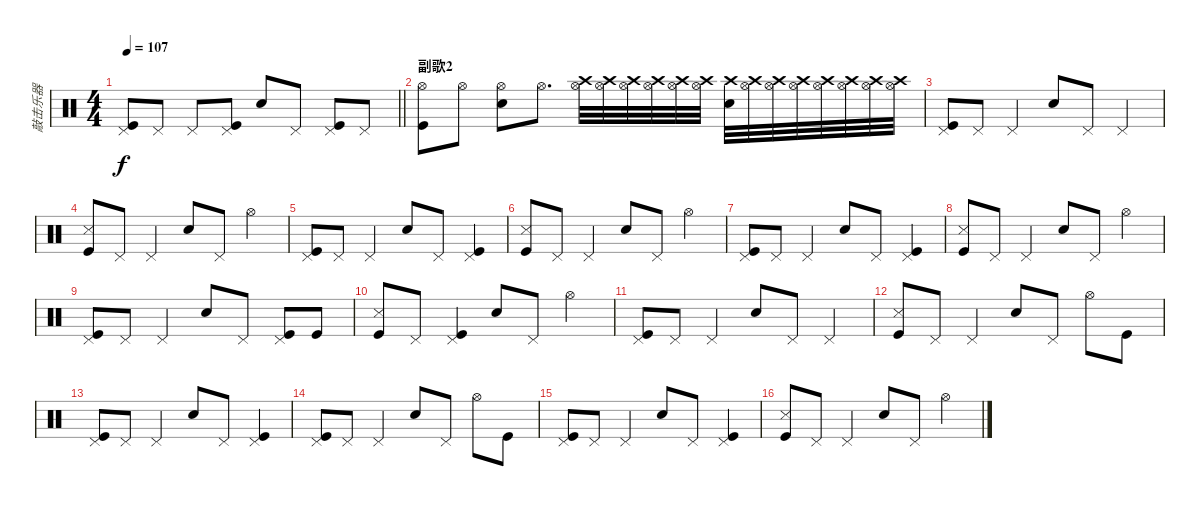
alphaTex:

\track ("敲击乐器" "敲击乐器") {instrument percussion}
\staff {score}
\articulation defaults
\ts (4 4)
\tempo 107
\clef neutral
\barLineRight lightlight
\ks c
("Kick (hit)" "Pedal Hi-Hat (hit)").8{dy f} "Pedal Hi-Hat (hit)".8 "Pedal Hi-Hat (hit)".8 ("Kick (hit)" "Pedal Hi-Hat (hit)").8 "Snare (hit) 2".8 "Pedal Hi-Hat (hit)".8 ("Kick (hit)" "Pedal Hi-Hat (hit)").8 "Pedal Hi-Hat (hit)".8 |
\section ("" "副歌2")
("Hi-Hat (open)" "Kick (hit)").8 "Hi-Hat (open)".8 ("Hi-Hat (open)" "Snare (hit) 2").8 "Hi-Hat (open)".8{d} ("Crash high (hit)" "Hi-Hat (open)").32{volume 0} ("Crash high (hit)" "Hi-Hat (open)").32{volume 16} ("Crash high (hit)" "Hi-Hat (open)").32 ("Crash high (hit)" "Hi-Hat (open)").32 ("Crash high (hit)" "Hi-Hat (open)").32 ("Crash high (hit)" "Hi-Hat (open)").32 ("Crash high (hit)" "Snare (hit) 2").32 ("Crash high (hit)" "Hi-Hat (open)").32 ("Crash high (hit)" "Hi-Hat (open)").32 ("Crash high (hit)" "Hi-Hat (open)").32 ("Crash high (hit)" "Hi-Hat (open)").32 ("Crash high (hit)" "Hi-Hat (open)").32 ("Crash high (hit)" "Hi-Hat (open)").32 ("Crash high (hit)" "Hi-Hat (open)").32 |
("Kick (hit)" "Pedal Hi-Hat (hit)").8 "Pedal Hi-Hat (hit)".8 "Pedal Hi-Hat (hit)".4 "Snare (hit) 2".8 "Pedal Hi-Hat (hit)".8 "Pedal Hi-Hat (hit)".4 |
("Kick (hit)" "Snare (side stick) 3").8 "Pedal Hi-Hat (hit)".8 "Pedal Hi-Hat (hit)".4 "Snare (hit) 2".8 "Pedal Hi-Hat (hit)".8 "Hi-Hat (open)".4 |
("Kick (hit)" "Pedal Hi-Hat (hit)").8 "Pedal Hi-Hat (hit)".8 "Pedal Hi-Hat (hit)".4 "Snare (hit) 2".8 "Pedal Hi-Hat (hit)".8 ("Kick (hit)" "Pedal Hi-Hat (hit)").4 |
("Kick (hit)" "Snare (side stick) 3").8 "Pedal Hi-Hat (hit)".8 "Pedal Hi-Hat (hit)".4 "Snare (hit) 2".8 "Pedal Hi-Hat (hit)".8 "Hi-Hat (open)".4 |
("Kick (hit)" "Pedal Hi-Hat (hit)").8 "Pedal Hi-Hat (hit)".8 "Pedal Hi-Hat (hit)".4 "Snare (hit) 2".8 "Pedal Hi-Hat (hit)".8 ("Kick (hit)" "Pedal Hi-Hat (hit)").4 |
("Kick (hit)" "Snare (side stick) 3").8 "Pedal Hi-Hat (hit)".8 "Pedal Hi-Hat (hit)".4 "Snare (hit) 2".8 "Pedal Hi-Hat (hit)".8 "Hi-Hat (open)".4 |
("Kick (hit)" "Pedal Hi-Hat (hit)").8 "Pedal Hi-Hat (hit)".8 "Pedal Hi-Hat (hit)".4 "Snare (hit) 2".8 "Pedal Hi-Hat (hit)".8 ("Kick (hit)" "Pedal Hi-Hat (hit)").8 "Kick (hit)".8 |
("Kick (hit)" "Snare (side stick) 3").8 "Pedal Hi-Hat (hit)".8 ("Kick (hit)" "Pedal Hi-Hat (hit)").4 "Snare (hit) 2".8 "Pedal Hi-Hat (hit)".8 "Hi-Hat (open)".4 |
("Kick (hit)" "Pedal Hi-Hat (hit)").8 "Pedal Hi-Hat (hit)".8 "Pedal Hi-Hat (hit)".4 "Snare (hit) 2".8 "Pedal Hi-Hat (hit)".8 "Pedal Hi-Hat (hit)".4 |
("Kick (hit)" "Snare (side stick) 3").8 "Pedal Hi-Hat (hit)".8 "Pedal Hi-Hat (hit)".4 "Snare (hit) 2".8 "Pedal Hi-Hat (hit)".8 "Hi-Hat (open)".8 "Kick (hit)".8 |
("Kick (hit)" "Pedal Hi-Hat (hit)").8 "Pedal Hi-Hat (hit)".8 "Pedal Hi-Hat (hit)".4 "Snare (hit) 2".8 "Pedal Hi-Hat (hit)".8 ("Kick (hit)" "Pedal Hi-Hat (hit)").4 |
("Kick (hit)" "Pedal Hi-Hat (hit)").8 "Pedal Hi-Hat (hit)".8 "Pedal Hi-Hat (hit)".4 "Snare (hit) 2".8 "Pedal Hi-Hat (hit)".8 "Hi-Hat (open)".8 "Kick (hit)".8 |
("Kick (hit)" "Pedal Hi-Hat (hit)").8 "Pedal Hi-Hat (hit)".8 "Pedal Hi-Hat (hit)".4 "Snare (hit) 2".8 "Pedal Hi-Hat (hit)".8 ("Kick (hit)" "Pedal Hi-Hat (hit)").4 |
("Kick (hit)" "Snare (side stick) 3").8 "Pedal Hi-Hat (hit)".8 "Pedal Hi-Hat (hit)".4 "Snare (hit) 2".8 "Pedal Hi-Hat (hit)".8 "Hi-Hat (open)".4
